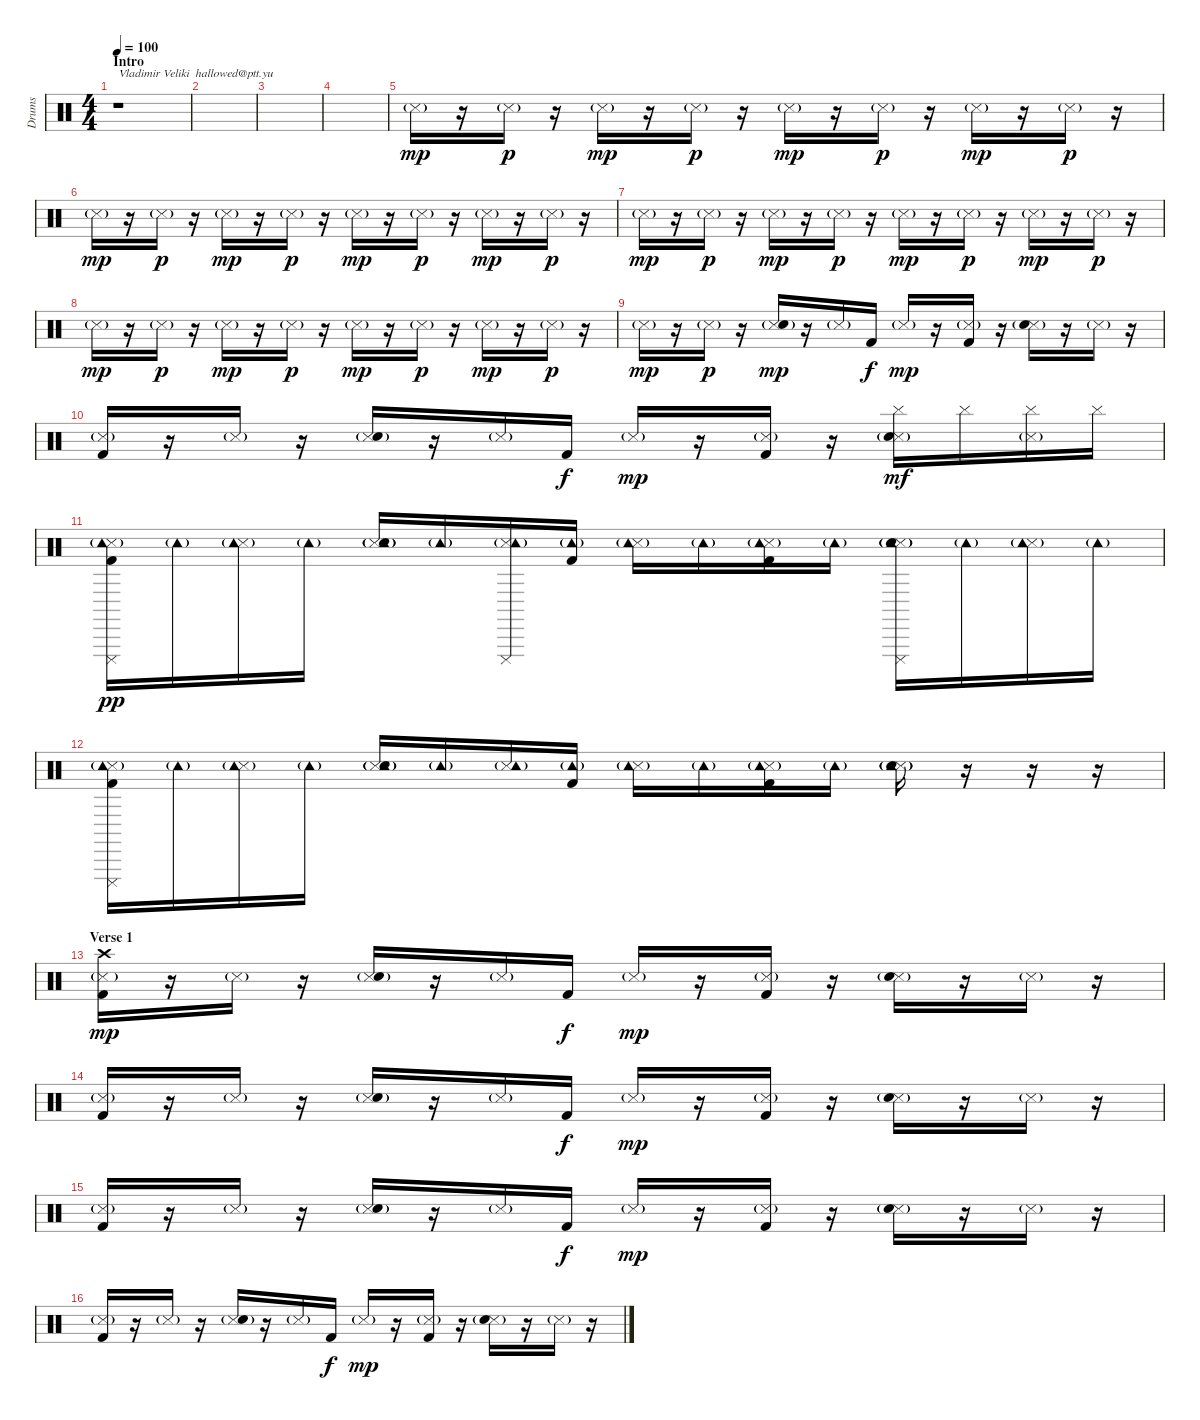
\track ("Drums" "Drums") {instrument percussion}
\staff {score}
\articulation defaults
\ts (4 4)
\section ("" "Intro")
\tempo 100
\clef neutral
\ks c
r.1{txt "Vladimir Veliki  hallowed@ptt.yu" dy mp} |
|
|
|
"Metronome (hit)"{g}.16 r.16 "Metronome (hit)"{g}.16{dy p} r.16 "Metronome (hit)"{g}.16{dy mp} r.16 "Metronome (hit)"{g}.16{dy p} r.16 "Metronome (hit)"{g}.16{dy mp} r.16 "Metronome (hit)"{g}.16{dy p} r.16 "Metronome (hit)"{g}.16{dy mp} r.16 "Metronome (hit)"{g}.16{dy p} r.16 |
"Metronome (hit)"{g}.16{dy mp} r.16 "Metronome (hit)"{g}.16{dy p} r.16 "Metronome (hit)"{g}.16{dy mp} r.16 "Metronome (hit)"{g}.16{dy p} r.16 "Metronome (hit)"{g}.16{dy mp} r.16 "Metronome (hit)"{g}.16{dy p} r.16 "Metronome (hit)"{g}.16{dy mp} r.16 "Metronome (hit)"{g}.16{dy p} r.16 |
"Metronome (hit)"{g}.16{dy mp} r.16 "Metronome (hit)"{g}.16{dy p} r.16 "Metronome (hit)"{g}.16{dy mp} r.16 "Metronome (hit)"{g}.16{dy p} r.16 "Metronome (hit)"{g}.16{dy mp} r.16 "Metronome (hit)"{g}.16{dy p} r.16 "Metronome (hit)"{g}.16{dy mp} r.16 "Metronome (hit)"{g}.16{dy p} r.16 |
"Metronome (hit)"{g}.16{dy mp} r.16 "Metronome (hit)"{g}.16{dy p} r.16 "Metronome (hit)"{g}.16{dy mp} r.16 "Metronome (hit)"{g}.16{dy p} r.16 "Metronome (hit)"{g}.16{dy mp} r.16 "Metronome (hit)"{g}.16{dy p} r.16 "Metronome (hit)"{g}.16{dy mp} r.16 "Metronome (hit)"{g}.16{dy p} r.16 |
"Metronome (hit)"{g}.16{dy mp} r.16 "Metronome (hit)"{g}.16{dy p} r.16 ("Metronome (hit)"{g} "Electric Snare (hit)").16{dy mp} r.16 "Metronome (hit)"{g}.16 "Kick (hit) 2".16{dy f} "Metronome (hit)"{g}.16{dy mp} r.16 ("Metronome (hit)"{g} "Kick (hit) 2").16 r.16 ("Metronome (hit)"{g} "Electric Snare (hit)").16 r.16 "Metronome (hit)"{g}.16 r.16 |
("Metronome (hit)"{g} "Kick (hit) 2").16 r.16 "Metronome (hit)"{g}.16 r.16 ("Metronome (hit)"{g} "Electric Snare (hit)").16 r.16 "Metronome (hit)"{g}.16 "Kick (hit) 2".16{dy f} "Metronome (hit)"{g}.16{dy mp} r.16 ("Metronome (hit)"{g} "Kick (hit) 2").16 r.16 ("Metronome (hit)"{g} "Electric Snare (hit)" "Cymbal (hit)").16{dy mf} "Cymbal (hit)".16 ("Metronome (hit)"{g} "Cymbal (hit)").16 "Cymbal (hit)".16 |
("Cuica (mute)" "Metronome (hit)"{g} "Tambourine (hit)"{g} "Kick (hit) 2").16{dy pp} "Tambourine (hit)"{g}.16 ("Metronome (hit)"{g} "Tambourine (hit)"{g}).16 "Tambourine (hit)"{g}.16 ("Metronome (hit)"{g} "Electric Snare (hit)" "Tambourine (hit)"{g}).16 "Tambourine (hit)"{g}.16 ("Cuica (mute)" "Metronome (hit)"{g} "Tambourine (hit)"{g}).16 ("Tambourine (hit)"{g} "Kick (hit) 2").16 ("Metronome (hit)"{g} "Tambourine (hit)"{g}).16 "Tambourine (hit)"{g}.16 ("Metronome (hit)"{g} "Tambourine (hit)"{g} "Kick (hit) 2").16 "Tambourine (hit)"{g}.16 ("Cuica (mute)" "Metronome (hit)"{g} "Electric Snare (hit)" "Tambourine (hit)"{g}).16 "Tambourine (hit)"{g}.16 ("Metronome (hit)"{g} "Tambourine (hit)"{g}).16 "Tambourine (hit)"{g}.16 |
("Cuica (mute)" "Metronome (hit)"{g} "Tambourine (hit)"{g} "Kick (hit) 2").16 "Tambourine (hit)"{g}.16 ("Metronome (hit)"{g} "Tambourine (hit)"{g}).16 "Tambourine (hit)"{g}.16 ("Metronome (hit)"{g} "Electric Snare (hit)" "Tambourine (hit)"{g}).16 "Tambourine (hit)"{g}.16 ("Metronome (hit)"{g} "Tambourine (hit)"{g}).16 ("Tambourine (hit)"{g} "Kick (hit) 2").16 ("Metronome (hit)"{g} "Tambourine (hit)"{g}).16 "Tambourine (hit)"{g}.16 ("Metronome (hit)"{g} "Tambourine (hit)"{g} "Kick (hit) 2").16 "Tambourine (hit)"{g}.16 ("Metronome (hit)"{g} "Electric Snare (hit)" "Tambourine (hit)"{g}).16 r.16 r.16 r.16 |
\section ("" "Verse 1")
("Crash high (hit)" "Metronome (hit)"{g} "Kick (hit) 2").16{dy mp} r.16 "Metronome (hit)"{g}.16 r.16 ("Metronome (hit)"{g} "Electric Snare (hit)").16 r.16 "Metronome (hit)"{g}.16 "Kick (hit) 2".16{dy f} "Metronome (hit)"{g}.16{dy mp} r.16 ("Metronome (hit)"{g} "Kick (hit) 2").16 r.16 ("Metronome (hit)"{g} "Electric Snare (hit)").16 r.16 "Metronome (hit)"{g}.16 r.16 |
("Metronome (hit)"{g} "Kick (hit) 2").16 r.16 "Metronome (hit)"{g}.16 r.16 ("Metronome (hit)"{g} "Electric Snare (hit)").16 r.16 "Metronome (hit)"{g}.16 "Kick (hit) 2".16{dy f} "Metronome (hit)"{g}.16{dy mp} r.16 ("Metronome (hit)"{g} "Kick (hit) 2").16 r.16 ("Metronome (hit)"{g} "Electric Snare (hit)").16 r.16 "Metronome (hit)"{g}.16 r.16 |
("Metronome (hit)"{g} "Kick (hit) 2").16 r.16 "Metronome (hit)"{g}.16 r.16 ("Metronome (hit)"{g} "Electric Snare (hit)").16 r.16 "Metronome (hit)"{g}.16 "Kick (hit) 2".16{dy f} "Metronome (hit)"{g}.16{dy mp} r.16 ("Metronome (hit)"{g} "Kick (hit) 2").16 r.16 ("Metronome (hit)"{g} "Electric Snare (hit)").16 r.16 "Metronome (hit)"{g}.16 r.16 |
("Metronome (hit)"{g} "Kick (hit) 2").16 r.16 "Metronome (hit)"{g}.16 r.16 ("Metronome (hit)"{g} "Electric Snare (hit)").16 r.16 "Metronome (hit)"{g}.16 "Kick (hit) 2".16{dy f} "Metronome (hit)"{g}.16{dy mp} r.16 ("Metronome (hit)"{g} "Kick (hit) 2").16 r.16 ("Metronome (hit)"{g} "Electric Snare (hit)").16 r.16 "Metronome (hit)"{g}.16 r.16
